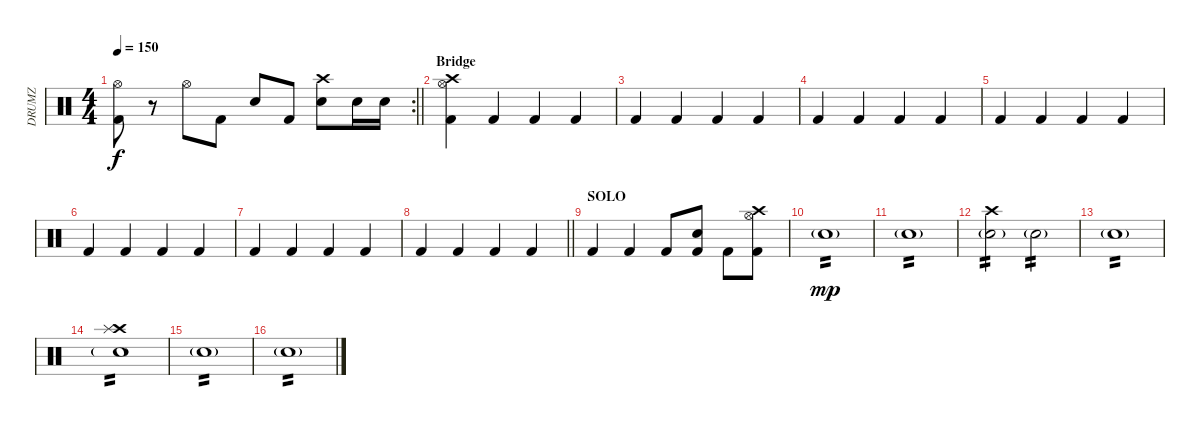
\track ("DRUMZ" "DRUMZ") {instrument percussion}
\staff {score}
\articulation defaults
\rc 2
\ts (4 4)
\tempo 150
\clef neutral
\barLineRight lightlight
\ks c
("Hi-Hat (open)" "Kick (hit) 2").8{dy f} r.8 "Hi-Hat (open)".8 "Kick (hit) 2".8 "Electric Snare (hit)".8 "Kick (hit) 2".8 ("Crash high (hit)" "Electric Snare (hit)").8 "Electric Snare (hit)".16 "Electric Snare (hit)".16 |
\section ("" "Bridge")
("Crash high (hit)" "Hi-Hat (open)" "Kick (hit) 2").4{volume 7} "Kick (hit) 2".4 "Kick (hit) 2".4 "Kick (hit) 2".4 |
"Kick (hit) 2".4 "Kick (hit) 2".4 "Kick (hit) 2".4 "Kick (hit) 2".4 |
"Kick (hit) 2".4 "Kick (hit) 2".4 "Kick (hit) 2".4 "Kick (hit) 2".4 |
"Kick (hit) 2".4 "Kick (hit) 2".4 "Kick (hit) 2".4 "Kick (hit) 2".4 |
"Kick (hit) 2".4 "Kick (hit) 2".4 "Kick (hit) 2".4 "Kick (hit) 2".4 |
"Kick (hit) 2".4 "Kick (hit) 2".4 "Kick (hit) 2".4 "Kick (hit) 2".4 |
\barLineRight lightlight "Kick (hit) 2".4 "Kick (hit) 2".4 "Kick (hit) 2".4 "Kick (hit) 2".4
|
\section ("" "SOLO")
"Kick (hit) 2".4 "Kick (hit) 2".4 "Kick (hit) 2".8{volume 16} ("Electric Snare (hit)" "Kick (hit) 2").8 "Kick (hit) 2".8 ("Crash high (hit)" "Hi-Hat (open)" "Kick (hit) 2").8 |
"Electric Snare (hit)"{g}.1{tp 2 dy mp} |
"Electric Snare (hit)"{g}.1{tp 2} |
("Crash high (hit)" "Electric Snare (hit)"{g}).2{tp 2} "Electric Snare (hit)"{g}.2{tp 2} |
"Electric Snare (hit)"{g}.1{tp 2} |
("Crash high (hit)" "Splash (hit)" "Electric Snare (hit)"{g}).1{tp 2} |
"Electric Snare (hit)"{g}.1{tp 2} |
"Electric Snare (hit)"{g}.1{tp 2}
